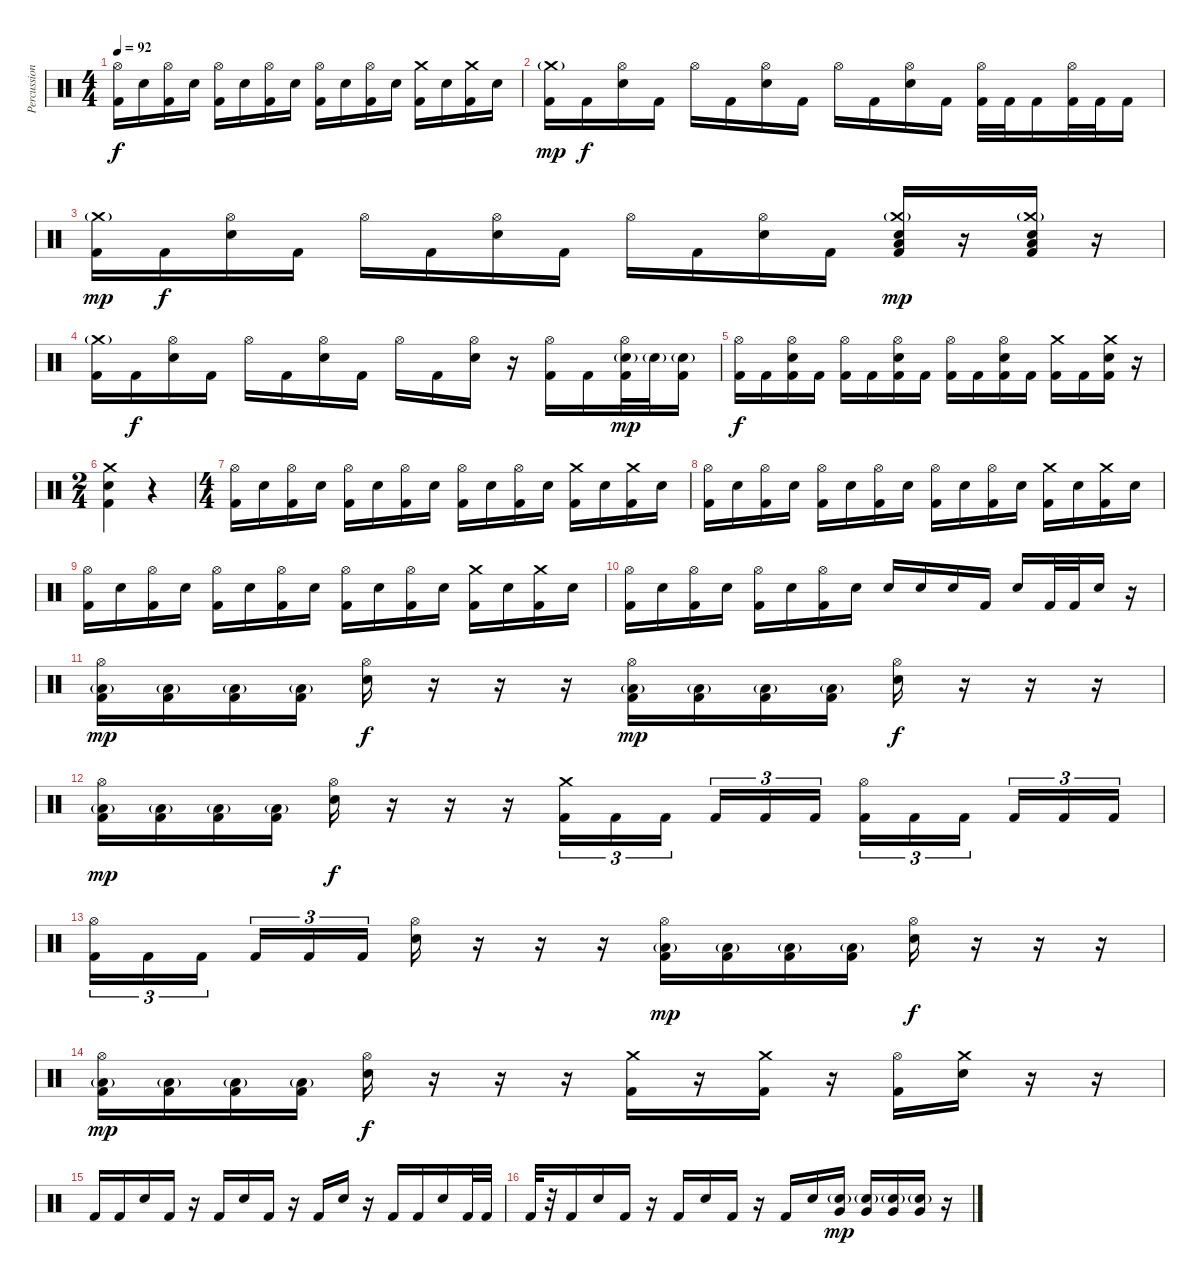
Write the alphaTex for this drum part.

\track ("Percussion" "Percussion") {instrument percussion}
\staff {score}
\articulation defaults
\ts (4 4)
\tempo 92
\clef neutral
\ks c
("Hi-Hat (open)" "Kick (hit) 2").16{dy f} "Electric Snare (hit)".16 ("Hi-Hat (open)" "Kick (hit) 2").16 "Electric Snare (hit)".16 ("Hi-Hat (open)" "Kick (hit) 2").16 "Electric Snare (hit)".16 ("Hi-Hat (open)" "Kick (hit) 2").16 "Electric Snare (hit)".16 ("Hi-Hat (open)" "Kick (hit) 2").16 "Electric Snare (hit)".16 ("Hi-Hat (open)" "Kick (hit) 2").16 "Electric Snare (hit)".16 ("Crash medium (hit)" "Kick (hit) 2").16 "Electric Snare (hit)".16 ("Crash medium (hit)" "Kick (hit) 2").16 "Electric Snare (hit)".16 |
("Crash medium (hit)"{g} "Kick (hit) 2").16{dy mp} "Kick (hit) 2".16{dy f} ("Hi-Hat (open)" "Electric Snare (hit)").16 "Kick (hit) 2".16 "Hi-Hat (open)".16 "Kick (hit) 2".16 ("Hi-Hat (open)" "Electric Snare (hit)").16 "Kick (hit) 2".16 "Hi-Hat (open)".16 "Kick (hit) 2".16 ("Hi-Hat (open)" "Electric Snare (hit)").16 "Kick (hit) 2".16 ("Hi-Hat (open)" "Kick (hit) 2").32 "Kick (hit) 2".32 "Kick (hit) 2".16 ("Hi-Hat (open)" "Kick (hit) 2").32 "Kick (hit) 2".32 "Kick (hit) 2".16 |
("Crash medium (hit)"{g} "Kick (hit) 2").16{dy mp} "Kick (hit) 2".16{dy f} ("Hi-Hat (open)" "Electric Snare (hit)").16 "Kick (hit) 2".16 "Hi-Hat (open)".16 "Kick (hit) 2".16 ("Hi-Hat (open)" "Electric Snare (hit)").16 "Kick (hit) 2".16 "Hi-Hat (open)".16 "Kick (hit) 2".16 ("Hi-Hat (open)" "Electric Snare (hit)").16 "Kick (hit) 2".16 ("Crash medium (hit)"{g} "Low Floor Tom (hit)" "Electric Snare (hit)" "Kick (hit) 2").16{dy mp} r.16 ("Crash medium (hit)"{g} "Low Floor Tom (hit)" "Electric Snare (hit)" "Kick (hit) 2").16 r.16 |
("Crash medium (hit)"{g} "Kick (hit) 2").16 "Kick (hit) 2".16{dy f} ("Hi-Hat (open)" "Electric Snare (hit)").16 "Kick (hit) 2".16 "Hi-Hat (open)".16 "Kick (hit) 2".16 ("Hi-Hat (open)" "Electric Snare (hit)").16 "Kick (hit) 2".16 "Hi-Hat (open)".16 "Kick (hit) 2".16 ("Hi-Hat (open)" "Electric Snare (hit)").16 r.16 ("Hi-Hat (open)" "Kick (hit) 2").16 "Kick (hit) 2".16 ("Hi-Hat (open)" "Electric Snare (hit)"{g} "Kick (hit) 2").32{dy mp} "Electric Snare (hit)"{g}.32 ("Electric Snare (hit)"{g} "Kick (hit) 2").16 |
("Hi-Hat (open)" "Kick (hit) 2").16{dy f} "Kick (hit) 2".16 ("Hi-Hat (open)" "Electric Snare (hit)" "Kick (hit) 2").16 "Kick (hit) 2".16 ("Hi-Hat (open)" "Kick (hit) 2").16 "Kick (hit) 2".16 ("Hi-Hat (open)" "Electric Snare (hit)" "Kick (hit) 2").16 "Kick (hit) 2".16 ("Hi-Hat (open)" "Kick (hit) 2").16 "Kick (hit) 2".16 ("Hi-Hat (open)" "Electric Snare (hit)" "Kick (hit) 2").16 "Kick (hit) 2".16 ("Crash medium (hit)" "Kick (hit) 2").16 "Kick (hit) 2".16 ("Crash medium (hit)" "Electric Snare (hit)" "Kick (hit) 2").16 r.16 |
\ts (2 4)
("Crash medium (hit)" "Electric Snare (hit)" "Kick (hit) 2").4 r.4 |
\ts (4 4)
("Hi-Hat (open)" "Kick (hit) 2").16 "Electric Snare (hit)".16 ("Hi-Hat (open)" "Kick (hit) 2").16 "Electric Snare (hit)".16 ("Hi-Hat (open)" "Kick (hit) 2").16 "Electric Snare (hit)".16 ("Hi-Hat (open)" "Kick (hit) 2").16 "Electric Snare (hit)".16 ("Hi-Hat (open)" "Kick (hit) 2").16 "Electric Snare (hit)".16 ("Hi-Hat (open)" "Kick (hit) 2").16 "Electric Snare (hit)".16 ("Crash medium (hit)" "Kick (hit) 2").16 "Electric Snare (hit)".16 ("Crash medium (hit)" "Kick (hit) 2").16 "Electric Snare (hit)".16 |
("Hi-Hat (open)" "Kick (hit) 2").16 "Electric Snare (hit)".16 ("Hi-Hat (open)" "Kick (hit) 2").16 "Electric Snare (hit)".16 ("Hi-Hat (open)" "Kick (hit) 2").16 "Electric Snare (hit)".16 ("Hi-Hat (open)" "Kick (hit) 2").16 "Electric Snare (hit)".16 ("Hi-Hat (open)" "Kick (hit) 2").16 "Electric Snare (hit)".16 ("Hi-Hat (open)" "Kick (hit) 2").16 "Electric Snare (hit)".16 ("Crash medium (hit)" "Kick (hit) 2").16 "Electric Snare (hit)".16 ("Crash medium (hit)" "Kick (hit) 2").16 "Electric Snare (hit)".16 |
("Hi-Hat (open)" "Kick (hit) 2").16 "Electric Snare (hit)".16 ("Hi-Hat (open)" "Kick (hit) 2").16 "Electric Snare (hit)".16 ("Hi-Hat (open)" "Kick (hit) 2").16 "Electric Snare (hit)".16 ("Hi-Hat (open)" "Kick (hit) 2").16 "Electric Snare (hit)".16 ("Hi-Hat (open)" "Kick (hit) 2").16 "Electric Snare (hit)".16 ("Hi-Hat (open)" "Kick (hit) 2").16 "Electric Snare (hit)".16 ("Crash medium (hit)" "Kick (hit) 2").16 "Electric Snare (hit)".16 ("Crash medium (hit)" "Kick (hit) 2").16 "Electric Snare (hit)".16 |
("Hi-Hat (open)" "Kick (hit) 2").16 "Electric Snare (hit)".16 ("Hi-Hat (open)" "Kick (hit) 2").16 "Electric Snare (hit)".16 ("Hi-Hat (open)" "Kick (hit) 2").16 "Electric Snare (hit)".16 ("Hi-Hat (open)" "Kick (hit) 2").16 "Electric Snare (hit)".16 "Electric Snare (hit)".16 "Electric Snare (hit)".16 "Electric Snare (hit)".16 "Kick (hit) 2".16 "Electric Snare (hit)".16 "Kick (hit) 2".32 "Kick (hit) 2".32 "Electric Snare (hit)".16 r.16 |
("Hi-Hat (open)" "Low Floor Tom (hit)"{g} "Kick (hit) 2").16{dy mp} ("Low Floor Tom (hit)"{g} "Kick (hit) 2").16 ("Low Floor Tom (hit)"{g} "Kick (hit) 2").16 ("Low Floor Tom (hit)"{g} "Kick (hit) 2").16 ("Hi-Hat (open)" "Electric Snare (hit)").16{dy f} r.16 r.16 r.16 ("Hi-Hat (open)" "Low Floor Tom (hit)"{g} "Kick (hit) 2").16{dy mp} ("Low Floor Tom (hit)"{g} "Kick (hit) 2").16 ("Low Floor Tom (hit)"{g} "Kick (hit) 2").16 ("Low Floor Tom (hit)"{g} "Kick (hit) 2").16 ("Hi-Hat (open)" "Electric Snare (hit)").16{dy f} r.16 r.16 r.16 |
("Hi-Hat (open)" "Low Floor Tom (hit)"{g} "Kick (hit) 2").16{dy mp} ("Low Floor Tom (hit)"{g} "Kick (hit) 2").16 ("Low Floor Tom (hit)"{g} "Kick (hit) 2").16 ("Low Floor Tom (hit)"{g} "Kick (hit) 2").16 ("Hi-Hat (open)" "Electric Snare (hit)").16{dy f} r.16 r.16 r.16 ("Crash medium (hit)" "Kick (hit) 2").16{tu (3 2)} "Kick (hit) 2".16{tu (3 2)} "Kick (hit) 2".16{tu (3 2) beam splitsecondary} "Kick (hit) 2".16{tu (3 2)} "Kick (hit) 2".16{tu (3 2)} "Kick (hit) 2".16{tu (3 2)} ("Hi-Hat (open)" "Kick (hit) 2").16{tu (3 2)} "Kick (hit) 2".16{tu (3 2)} "Kick (hit) 2".16{tu (3 2) beam splitsecondary} "Kick (hit) 2".16{tu (3 2)} "Kick (hit) 2".16{tu (3 2)} "Kick (hit) 2".16{tu (3 2)} |
("Hi-Hat (open)" "Kick (hit) 2").16{tu (3 2)} "Kick (hit) 2".16{tu (3 2)} "Kick (hit) 2".16{tu (3 2) beam splitsecondary} "Kick (hit) 2".16{tu (3 2)} "Kick (hit) 2".16{tu (3 2)} "Kick (hit) 2".16{tu (3 2)} ("Hi-Hat (open)" "Electric Snare (hit)").16 r.16 r.16 r.16 ("Hi-Hat (open)" "Low Floor Tom (hit)"{g} "Kick (hit) 2").16{dy mp} ("Low Floor Tom (hit)"{g} "Kick (hit) 2").16 ("Low Floor Tom (hit)"{g} "Kick (hit) 2").16 ("Low Floor Tom (hit)"{g} "Kick (hit) 2").16 ("Hi-Hat (open)" "Electric Snare (hit)").16{dy f} r.16 r.16 r.16 |
("Hi-Hat (open)" "Low Floor Tom (hit)"{g} "Kick (hit) 2").16{dy mp} ("Low Floor Tom (hit)"{g} "Kick (hit) 2").16 ("Low Floor Tom (hit)"{g} "Kick (hit) 2").16 ("Low Floor Tom (hit)"{g} "Kick (hit) 2").16 ("Hi-Hat (open)" "Electric Snare (hit)").16{dy f} r.16 r.16 r.16 ("Crash medium (hit)" "Kick (hit) 2").16 r.16 ("Crash medium (hit)" "Kick (hit) 2").16 r.16 ("Hi-Hat (open)" "Kick (hit) 2").16 ("Crash medium (hit)" "Electric Snare (hit)").16 r.16 r.16 |
"Kick (hit) 2".16 "Kick (hit) 2".16 "Electric Snare (hit)".16 "Kick (hit) 2".16 r.16 "Kick (hit) 2".16 "Electric Snare (hit)".16 "Kick (hit) 2".16 r.16 "Kick (hit) 2".16 "Electric Snare (hit)".16 r.16 "Kick (hit) 2".16 "Kick (hit) 2".16 "Electric Snare (hit)".16 "Kick (hit) 2".32 "Kick (hit) 2".32 |
"Kick (hit) 2".32 r.32 "Kick (hit) 2".16 "Electric Snare (hit)".16 "Kick (hit) 2".16 r.16 "Kick (hit) 2".16 "Electric Snare (hit)".16 "Kick (hit) 2".16 r.16 "Kick (hit) 2".16 "Electric Snare (hit)".16 ("Very Low Tom (hit)" "Electric Snare (hit)"{g}).16{dy mp} ("Very Low Tom (hit)" "Electric Snare (hit)"{g}).16 ("Very Low Tom (hit)" "Electric Snare (hit)"{g}).16 ("Very Low Tom (hit)" "Electric Snare (hit)"{g}).16 r.16
